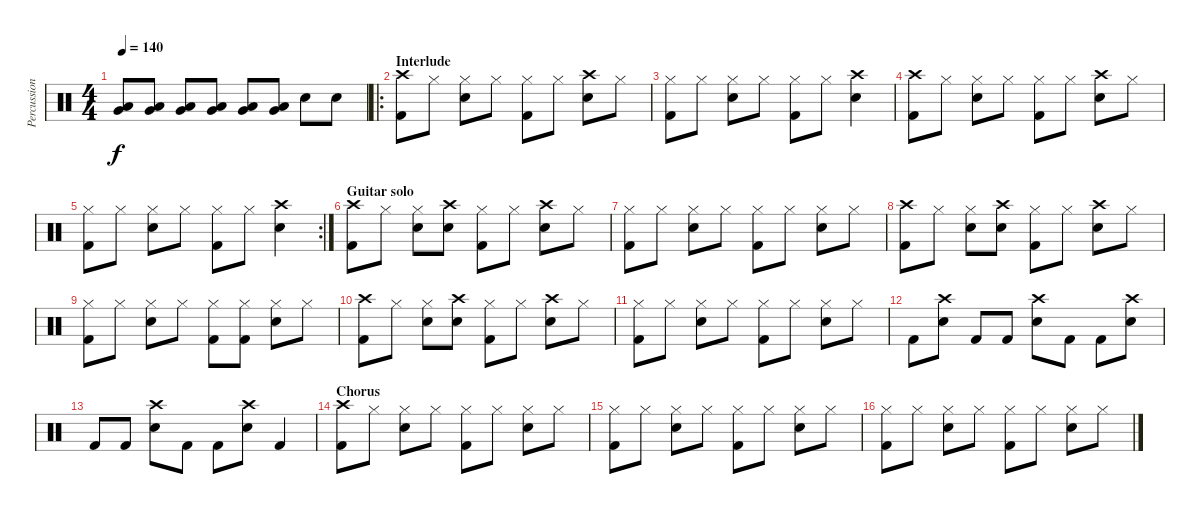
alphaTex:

\track ("Percussion" "Percussion") {instrument percussion}
\staff {score}
\articulation defaults
\ts (4 4)
\tempo 140
\clef neutral
\ks c
("Very Low Tom (hit)" "Low Tom (hit)").8{dy f} ("Very Low Tom (hit)" "Low Tom (hit)").8 ("Very Low Tom (hit)" "Low Tom (hit)").8 ("Very Low Tom (hit)" "Low Tom (hit)").8 ("Very Low Tom (hit)" "Low Tom (hit)").8 ("Very Low Tom (hit)" "Low Tom (hit)").8 "Snare (hit) 2".8 "Snare (hit) 2".8 |
\ro
\section ("" "Interlude")
("Crash high (hit)" "Kick (hit) 2").8 "Hi-Hat (closed)".8 ("Hi-Hat (closed)" "Snare (hit) 2").8 "Hi-Hat (closed)".8 ("Hi-Hat (closed)" "Kick (hit) 2").8 "Hi-Hat (closed)".8 ("Crash high (hit)" "Snare (hit) 2").8 "Hi-Hat (closed)".8 |
("Hi-Hat (closed)" "Kick (hit) 2").8 "Hi-Hat (closed)".8 ("Hi-Hat (closed)" "Snare (hit) 2").8 "Hi-Hat (closed)".8 ("Hi-Hat (closed)" "Kick (hit) 2").8 "Hi-Hat (closed)".8 ("Crash high (hit)" "Snare (hit) 2").4 |
("Crash high (hit)" "Kick (hit) 2").8 "Hi-Hat (closed)".8 ("Hi-Hat (closed)" "Snare (hit) 2").8 "Hi-Hat (closed)".8 ("Hi-Hat (closed)" "Kick (hit) 2").8 "Hi-Hat (closed)".8 ("Crash high (hit)" "Snare (hit) 2").8 "Hi-Hat (closed)".8 |
\rc 2
("Hi-Hat (closed)" "Kick (hit) 2").8 "Hi-Hat (closed)".8 ("Hi-Hat (closed)" "Snare (hit) 2").8 "Hi-Hat (closed)".8 ("Hi-Hat (closed)" "Kick (hit) 2").8 "Hi-Hat (closed)".8 ("Crash high (hit)" "Snare (hit) 2").4 |
\section ("" "Guitar solo")
("Crash high (hit)" "Kick (hit) 2").8 "Hi-Hat (closed)".8 ("Hi-Hat (closed)" "Snare (hit) 2").8 ("Crash high (hit)" "Snare (hit) 2").8 ("Hi-Hat (closed)" "Kick (hit) 2").8 "Hi-Hat (closed)".8 ("Crash high (hit)" "Snare (hit) 2").8 "Hi-Hat (closed)".8 |
("Hi-Hat (closed)" "Kick (hit) 2").8 "Hi-Hat (closed)".8 ("Hi-Hat (closed)" "Snare (hit) 2").8 "Hi-Hat (closed)".8 ("Hi-Hat (closed)" "Kick (hit) 2").8 "Hi-Hat (closed)".8 ("Hi-Hat (closed)" "Snare (hit) 2").8 "Hi-Hat (closed)".8 |
("Crash high (hit)" "Kick (hit) 2").8 "Hi-Hat (closed)".8 ("Hi-Hat (closed)" "Snare (hit) 2").8 ("Crash high (hit)" "Snare (hit) 2").8 ("Hi-Hat (closed)" "Kick (hit) 2").8 "Hi-Hat (closed)".8 ("Crash high (hit)" "Snare (hit) 2").8 "Hi-Hat (closed)".8 |
("Hi-Hat (closed)" "Kick (hit) 2").8 "Hi-Hat (closed)".8 ("Hi-Hat (closed)" "Snare (hit) 2").8 "Hi-Hat (closed)".8 ("Hi-Hat (closed)" "Kick (hit) 2").8 ("Hi-Hat (closed)" "Kick (hit) 2").8 ("Hi-Hat (closed)" "Snare (hit) 2").8 "Hi-Hat (closed)".8 |
("Crash high (hit)" "Kick (hit) 2").8 "Hi-Hat (closed)".8 ("Hi-Hat (closed)" "Snare (hit) 2").8 ("Crash high (hit)" "Snare (hit) 2").8 ("Hi-Hat (closed)" "Kick (hit) 2").8 "Hi-Hat (closed)".8 ("Crash high (hit)" "Snare (hit) 2").8 "Hi-Hat (closed)".8 |
("Hi-Hat (closed)" "Kick (hit) 2").8 "Hi-Hat (closed)".8 ("Hi-Hat (closed)" "Snare (hit) 2").8 "Hi-Hat (closed)".8 ("Hi-Hat (closed)" "Kick (hit) 2").8 "Hi-Hat (closed)".8 ("Hi-Hat (closed)" "Snare (hit) 2").8 "Hi-Hat (closed)".8 |
"Kick (hit) 2".8 ("Crash high (hit)" "Snare (hit) 2").8 "Kick (hit) 2".8 "Kick (hit) 2".8 ("Crash high (hit)" "Snare (hit) 2").8 "Kick (hit) 2".8 "Kick (hit) 2".8 ("Crash high (hit)" "Snare (hit) 2").8 |
"Kick (hit) 2".8 "Kick (hit) 2".8 ("Crash high (hit)" "Snare (hit) 2").8 "Kick (hit) 2".8 "Kick (hit) 2".8 ("Crash high (hit)" "Snare (hit) 2").8 "Kick (hit) 2".4 |
\section ("" "Chorus")
("Crash high (hit)" "Kick (hit) 2").8 "Hi-Hat (closed)".8 ("Hi-Hat (closed)" "Snare (hit) 2").8 "Hi-Hat (closed)".8 ("Hi-Hat (closed)" "Kick (hit) 2").8 "Hi-Hat (closed)".8 ("Hi-Hat (closed)" "Snare (hit) 2").8 "Hi-Hat (closed)".8 |
("Hi-Hat (closed)" "Kick (hit) 2").8 "Hi-Hat (closed)".8 ("Hi-Hat (closed)" "Snare (hit) 2").8 "Hi-Hat (closed)".8 ("Hi-Hat (closed)" "Kick (hit) 2").8 "Hi-Hat (closed)".8 ("Hi-Hat (closed)" "Snare (hit) 2").8 "Hi-Hat (closed)".8 |
("Hi-Hat (closed)" "Kick (hit) 2").8 "Hi-Hat (closed)".8 ("Hi-Hat (closed)" "Snare (hit) 2").8 "Hi-Hat (closed)".8 ("Hi-Hat (closed)" "Kick (hit) 2").8 "Hi-Hat (closed)".8 ("Hi-Hat (closed)" "Snare (hit) 2").8 "Hi-Hat (closed)".8
